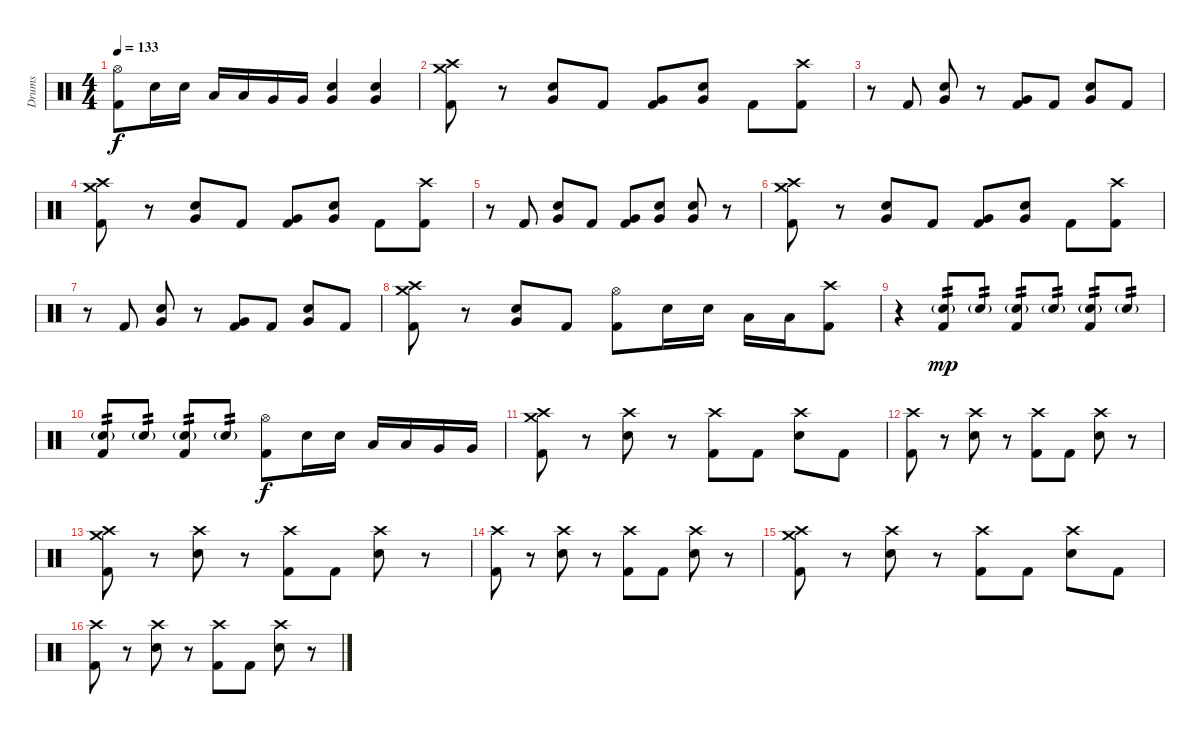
\track ("Drums" "Drums") {instrument percussion}
\staff {score}
\articulation defaults
\ts (4 4)
\tempo 133
\clef neutral
\ks c
("Hi-Hat (open)" "Kick (hit) 2").8{dy f} "Electric Snare (hit)".16 "Electric Snare (hit)".16 "Low Tom (hit)".16 "Low Tom (hit)".16 "Very Low Tom (hit)".16 "Very Low Tom (hit)".16 ("Very Low Tom (hit)" "Electric Snare (hit)").4 ("Very Low Tom (hit)" "Electric Snare (hit)").4 |
("Crash high (hit)" "Crash medium (hit)" "Kick (hit) 2").8 r.8 ("Very Low Tom (hit)" "Electric Snare (hit)").8 "Kick (hit) 2".8 ("Very Low Tom (hit)" "Kick (hit) 2").8 ("Very Low Tom (hit)" "Electric Snare (hit)").8 "Kick (hit) 2".8 ("Crash high (hit)" "Kick (hit) 2").8 |
r.8 "Kick (hit) 2".8 ("Very Low Tom (hit)" "Electric Snare (hit)").8 r.8 ("Very Low Tom (hit)" "Kick (hit) 2").8 "Kick (hit) 2".8 ("Very Low Tom (hit)" "Electric Snare (hit)").8 "Kick (hit) 2".8 |
("Crash high (hit)" "Crash medium (hit)" "Kick (hit) 2").8 r.8 ("Very Low Tom (hit)" "Electric Snare (hit)").8 "Kick (hit) 2".8 ("Very Low Tom (hit)" "Kick (hit) 2").8 ("Very Low Tom (hit)" "Electric Snare (hit)").8 "Kick (hit) 2".8 ("Crash high (hit)" "Kick (hit) 2").8 |
r.8 "Kick (hit) 2".8 ("Very Low Tom (hit)" "Electric Snare (hit)").8 "Kick (hit) 2".8 ("Very Low Tom (hit)" "Kick (hit) 2").8 ("Very Low Tom (hit)" "Electric Snare (hit)").8 ("Very Low Tom (hit)" "Electric Snare (hit)").8 r.8 |
("Crash high (hit)" "Crash medium (hit)" "Kick (hit) 2").8 r.8 ("Very Low Tom (hit)" "Electric Snare (hit)").8 "Kick (hit) 2".8 ("Very Low Tom (hit)" "Kick (hit) 2").8 ("Very Low Tom (hit)" "Electric Snare (hit)").8 "Kick (hit) 2".8 ("Crash high (hit)" "Kick (hit) 2").8 |
r.8 "Kick (hit) 2".8 ("Very Low Tom (hit)" "Electric Snare (hit)").8 r.8 ("Very Low Tom (hit)" "Kick (hit) 2").8 "Kick (hit) 2".8 ("Very Low Tom (hit)" "Electric Snare (hit)").8 "Kick (hit) 2".8 |
("Crash high (hit)" "Crash medium (hit)" "Kick (hit) 2").8 r.8 ("Very Low Tom (hit)" "Electric Snare (hit)").8 "Kick (hit) 2".8 ("Hi-Hat (open)" "Kick (hit) 2").8 "Electric Snare (hit)".16 "Electric Snare (hit)".16 "Low Tom (hit)".16 "Low Tom (hit)".16 ("Crash high (hit)" "Kick (hit) 2").8 |
r.4 ("Electric Snare (hit)"{g} "Kick (hit) 2").8{tp 2 dy mp} "Electric Snare (hit)"{g}.8{tp 2} ("Electric Snare (hit)"{g} "Kick (hit) 2").8{tp 2} "Electric Snare (hit)"{g}.8{tp 2} ("Electric Snare (hit)"{g} "Kick (hit) 2").8{tp 2} "Electric Snare (hit)"{g}.8{tp 2} |
("Electric Snare (hit)"{g} "Kick (hit) 2").8{tp 2} "Electric Snare (hit)"{g}.8{tp 2} ("Electric Snare (hit)"{g} "Kick (hit) 2").8{tp 2} "Electric Snare (hit)"{g}.8{tp 2} ("Hi-Hat (open)" "Kick (hit) 2").8{dy f} "Electric Snare (hit)".16 "Electric Snare (hit)".16 "Low Tom (hit)".16 "Low Tom (hit)".16 "Very Low Tom (hit)".16 "Very Low Tom (hit)".16 |
("Crash high (hit)" "Crash medium (hit)" "Kick (hit) 2").8 r.8 ("Crash high (hit)" "Electric Snare (hit)").8 r.8 ("Crash high (hit)" "Kick (hit) 2").8 "Kick (hit) 2".8 ("Crash high (hit)" "Electric Snare (hit)").8 "Kick (hit) 2".8 |
("Crash high (hit)" "Kick (hit) 2").8 r.8 ("Crash high (hit)" "Electric Snare (hit)").8 r.8 ("Crash high (hit)" "Kick (hit) 2").8 "Kick (hit) 2".8 ("Crash high (hit)" "Electric Snare (hit)").8 r.8 |
("Crash high (hit)" "Crash medium (hit)" "Kick (hit) 2").8 r.8 ("Crash high (hit)" "Electric Snare (hit)").8 r.8 ("Crash high (hit)" "Kick (hit) 2").8 "Kick (hit) 2".8 ("Crash high (hit)" "Electric Snare (hit)").8 r.8 |
("Crash high (hit)" "Kick (hit) 2").8 r.8 ("Crash high (hit)" "Electric Snare (hit)").8 r.8 ("Crash high (hit)" "Kick (hit) 2").8 "Kick (hit) 2".8 ("Crash high (hit)" "Electric Snare (hit)").8 r.8 |
("Crash high (hit)" "Crash medium (hit)" "Kick (hit) 2").8 r.8 ("Crash high (hit)" "Electric Snare (hit)").8 r.8 ("Crash high (hit)" "Kick (hit) 2").8 "Kick (hit) 2".8 ("Crash high (hit)" "Electric Snare (hit)").8 "Kick (hit) 2".8 |
("Crash high (hit)" "Kick (hit) 2").8 r.8 ("Crash high (hit)" "Electric Snare (hit)").8 r.8 ("Crash high (hit)" "Kick (hit) 2").8 "Kick (hit) 2".8 ("Crash high (hit)" "Electric Snare (hit)").8 r.8
